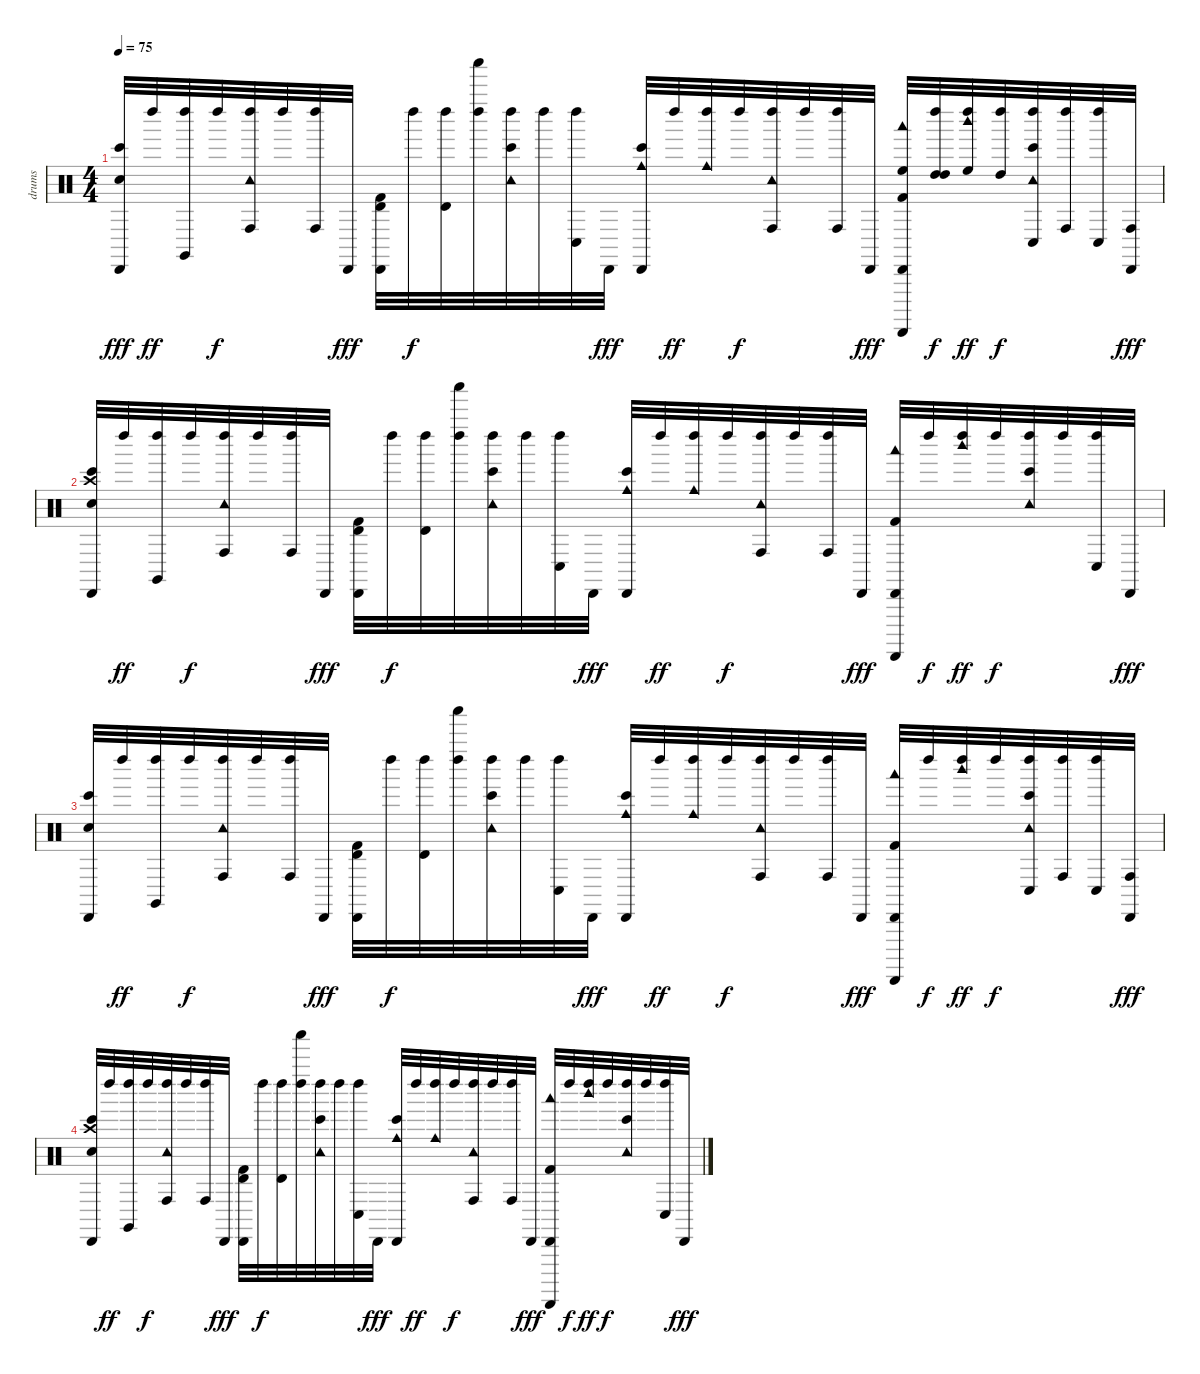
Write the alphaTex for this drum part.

\track ("drums" "drums") {instrument percussion}
\staff {score}
\articulation defaults
\ts (4 4)
\tempo 75
\clef neutral
\ks c
("Snare (hit) 2" "Bongo High (hit)" "Cabasa (hit)").32{dy fff} "Left Maraca (hit)".32{dy ff} ("Claves (hit)" "Left Maraca (hit)").32 "Left Maraca (hit)".32{dy f} ("Conga high (hit)" "Tambourine (hit)" "Left Maraca (hit)").32 "Left Maraca (hit)".32 ("Conga high (hit)" "Left Maraca (hit)").32 "Cabasa (hit)".32{dy fff} ("Timbale high (hit)" "Kick (hit) 2" "Cabasa (hit)").32 "Left Maraca (hit)".32{dy f} ("Timbale high (hit)" "Left Maraca (hit)").32 ("Left Maraca (hit)" "Shaker (hit)").32 ("Bongo High (hit)" "Tambourine (hit)" "Left Maraca (hit)").32 "Left Maraca (hit)".32 ("Conga low (hit)" "Left Maraca (hit)").32 "Cabasa (hit)".32{dy fff} ("Bongo High (hit)" "Cowbell medium (hit)" "Cabasa (hit)").32 "Left Maraca (hit)".32{dy ff} ("Cowbell medium (hit)" "Left Maraca (hit)").32 "Left Maraca (hit)".32{dy f} ("Conga high (hit)" "Tambourine (hit)" "Left Maraca (hit)").32 "Left Maraca (hit)".32 ("Conga high (hit)" "Left Maraca (hit)").32 "Cabasa (hit)".32{dy fff} ("Woodblock low (hit)" "Guiro (scrap-return)" "Kick (hit) 2" "High Floor Tom (hit)" "Cabasa (hit)").32 ("High Tom (hit)" "High Tom (hit)" "Left Maraca (hit)").32{dy f} ("High Floor Tom (hit)" "Woodblock high (hit)" "Left Maraca (hit)").32{dy ff} ("High Tom (hit)" "Left Maraca (hit)").32{dy f} ("Conga low (hit)" "Bongo High (hit)" "Tambourine (hit)" "Left Maraca (hit)").32 ("Conga high (hit)" "Left Maraca (hit)").32 ("Conga low (hit)" "Left Maraca (hit)").32 ("Conga high (hit)" "Cabasa (hit)").32{dy fff} |
("Bongo High (hit)" "Crash high (hit)" "Snare (hit) 2" "Cabasa (hit)").32 "Left Maraca (hit)".32{dy ff} ("Claves (hit)" "Left Maraca (hit)").32 "Left Maraca (hit)".32{dy f} ("Conga high (hit)" "Tambourine (hit)" "Left Maraca (hit)").32 "Left Maraca (hit)".32 ("Conga high (hit)" "Left Maraca (hit)").32 "Cabasa (hit)".32{dy fff} ("Timbale high (hit)" "Kick (hit) 2" "Cabasa (hit)").32 "Left Maraca (hit)".32{dy f} ("Timbale high (hit)" "Left Maraca (hit)").32 ("Left Maraca (hit)" "Shaker (hit)").32 ("Bongo High (hit)" "Tambourine (hit)" "Left Maraca (hit)").32 "Left Maraca (hit)".32 ("Conga low (hit)" "Left Maraca (hit)").32 "Cabasa (hit)".32{dy fff} ("Bongo High (hit)" "Cowbell medium (hit)" "Cabasa (hit)").32 "Left Maraca (hit)".32{dy ff} ("Cowbell medium (hit)" "Left Maraca (hit)").32 "Left Maraca (hit)".32{dy f} ("Conga high (hit)" "Tambourine (hit)" "Left Maraca (hit)").32 "Left Maraca (hit)".32 ("Conga high (hit)" "Left Maraca (hit)").32 "Cabasa (hit)".32{dy fff} ("Guiro (scrap-return)" "Kick (hit) 2" "Woodblock low (hit)" "Cabasa (hit)").32 "Left Maraca (hit)".32{dy f} ("Woodblock high (hit)" "Left Maraca (hit)").32{dy ff} "Left Maraca (hit)".32{dy f} ("Bongo High (hit)" "Tambourine (hit)" "Left Maraca (hit)").32 "Left Maraca (hit)".32 ("Conga low (hit)" "Left Maraca (hit)").32 "Cabasa (hit)".32{dy fff} |
("Snare (hit) 2" "Bongo High (hit)" "Cabasa (hit)").32 "Left Maraca (hit)".32{dy ff} ("Claves (hit)" "Left Maraca (hit)").32 "Left Maraca (hit)".32{dy f} ("Conga high (hit)" "Tambourine (hit)" "Left Maraca (hit)").32 "Left Maraca (hit)".32 ("Conga high (hit)" "Left Maraca (hit)").32 "Cabasa (hit)".32{dy fff} ("Timbale high (hit)" "Kick (hit) 2" "Cabasa (hit)").32 "Left Maraca (hit)".32{dy f} ("Timbale high (hit)" "Left Maraca (hit)").32 ("Left Maraca (hit)" "Shaker (hit)").32 ("Bongo High (hit)" "Tambourine (hit)" "Left Maraca (hit)").32 "Left Maraca (hit)".32 ("Conga low (hit)" "Left Maraca (hit)").32 "Cabasa (hit)".32{dy fff} ("Bongo High (hit)" "Cowbell medium (hit)" "Cabasa (hit)").32 "Left Maraca (hit)".32{dy ff} ("Cowbell medium (hit)" "Left Maraca (hit)").32 "Left Maraca (hit)".32{dy f} ("Conga high (hit)" "Tambourine (hit)" "Left Maraca (hit)").32 "Left Maraca (hit)".32 ("Conga high (hit)" "Left Maraca (hit)").32 "Cabasa (hit)".32{dy fff} ("Kick (hit) 2" "Guiro (scrap-return)" "Woodblock low (hit)" "Cabasa (hit)").32 "Left Maraca (hit)".32{dy f} ("Woodblock high (hit)" "Left Maraca (hit)").32{dy ff} "Left Maraca (hit)".32{dy f} ("Bongo High (hit)" "Conga low (hit)" "Tambourine (hit)" "Left Maraca (hit)").32 ("Conga high (hit)" "Left Maraca (hit)").32 ("Conga low (hit)" "Left Maraca (hit)").32 ("Conga high (hit)" "Cabasa (hit)").32{dy fff} |
("Crash high (hit)" "Snare (hit) 2" "Bongo High (hit)" "Cabasa (hit)").32 "Left Maraca (hit)".32{dy ff} ("Claves (hit)" "Left Maraca (hit)").32 "Left Maraca (hit)".32{dy f} ("Conga high (hit)" "Tambourine (hit)" "Left Maraca (hit)").32 "Left Maraca (hit)".32 ("Conga high (hit)" "Left Maraca (hit)").32 "Cabasa (hit)".32{dy fff} ("Timbale high (hit)" "Kick (hit) 2" "Cabasa (hit)").32 "Left Maraca (hit)".32{dy f} ("Timbale high (hit)" "Left Maraca (hit)").32 ("Left Maraca (hit)" "Shaker (hit)").32 ("Bongo High (hit)" "Tambourine (hit)" "Left Maraca (hit)").32 "Left Maraca (hit)".32 ("Conga low (hit)" "Left Maraca (hit)").32 "Cabasa (hit)".32{dy fff} ("Bongo High (hit)" "Cowbell medium (hit)" "Cabasa (hit)").32 "Left Maraca (hit)".32{dy ff} ("Cowbell medium (hit)" "Left Maraca (hit)").32 "Left Maraca (hit)".32{dy f} ("Conga high (hit)" "Tambourine (hit)" "Left Maraca (hit)").32 "Left Maraca (hit)".32 ("Conga high (hit)" "Left Maraca (hit)").32 "Cabasa (hit)".32{dy fff} ("Kick (hit) 2" "Guiro (scrap-return)" "Woodblock low (hit)" "Cabasa (hit)").32 "Left Maraca (hit)".32{dy f} ("Woodblock high (hit)" "Left Maraca (hit)").32{dy ff} "Left Maraca (hit)".32{dy f} ("Bongo High (hit)" "Tambourine (hit)" "Left Maraca (hit)").32 "Left Maraca (hit)".32 ("Conga low (hit)" "Left Maraca (hit)").32 "Cabasa (hit)".32{dy fff}
